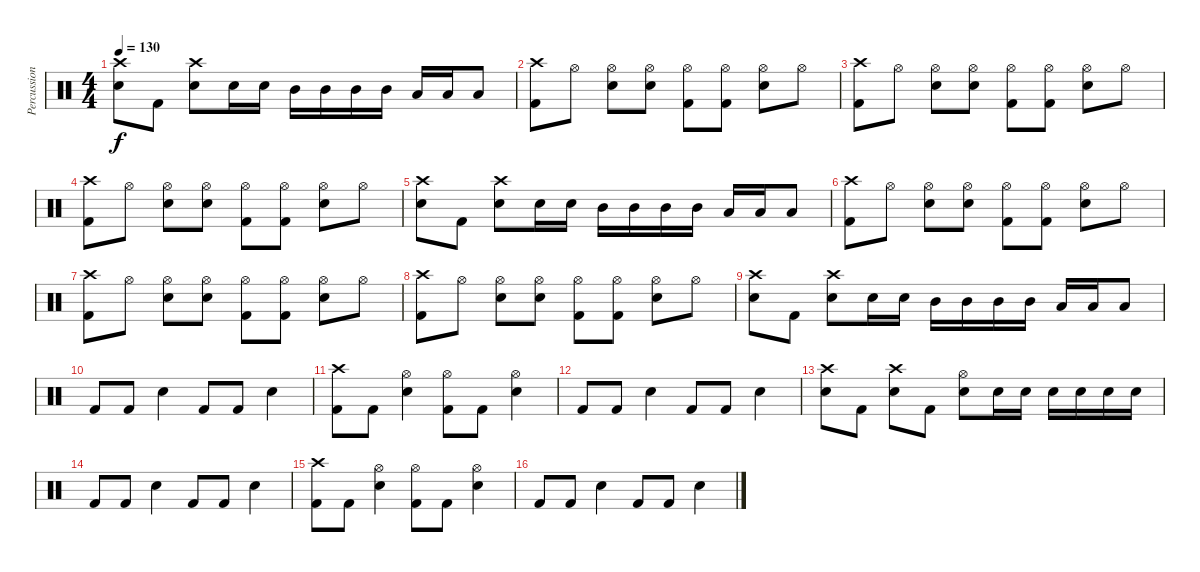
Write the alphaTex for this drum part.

\track ("Percussion" "Percussion") {instrument percussion}
\staff {score}
\articulation defaults
\ts (4 4)
\tempo 130
\clef neutral
\ks c
("Crash high (hit)" "Snare (hit) 2").8{dy f} "Kick (hit) 2".8 ("Crash high (hit)" "Snare (hit) 2").8 "Snare (hit) 2".16 "Snare (hit) 2".16 "Mid Tom (hit)".16 "Mid Tom (hit)".16 "Mid Tom (hit)".16 "Mid Tom (hit)".16 "Low Tom (hit)".16 "Low Tom (hit)".16 "Low Tom (hit)".8 |
("Crash high (hit)" "Kick (hit) 2").8 "Hi-Hat (open)".8 ("Hi-Hat (open)" "Snare (hit) 2").8 ("Hi-Hat (open)" "Snare (hit) 2").8 ("Hi-Hat (open)" "Kick (hit) 2").8 ("Hi-Hat (open)" "Kick (hit) 2").8 ("Hi-Hat (open)" "Snare (hit) 2").8 "Hi-Hat (open)".8 |
("Crash high (hit)" "Kick (hit) 2").8 "Hi-Hat (open)".8 ("Hi-Hat (open)" "Snare (hit) 2").8 ("Hi-Hat (open)" "Snare (hit) 2").8 ("Hi-Hat (open)" "Kick (hit) 2").8 ("Hi-Hat (open)" "Kick (hit) 2").8 ("Hi-Hat (open)" "Snare (hit) 2").8 "Hi-Hat (open)".8 |
("Crash high (hit)" "Kick (hit) 2").8 "Hi-Hat (open)".8 ("Hi-Hat (open)" "Snare (hit) 2").8 ("Hi-Hat (open)" "Snare (hit) 2").8 ("Hi-Hat (open)" "Kick (hit) 2").8 ("Hi-Hat (open)" "Kick (hit) 2").8 ("Hi-Hat (open)" "Snare (hit) 2").8 "Hi-Hat (open)".8 |
("Crash high (hit)" "Snare (hit) 2").8 "Kick (hit) 2".8 ("Crash high (hit)" "Snare (hit) 2").8 "Snare (hit) 2".16 "Snare (hit) 2".16 "Mid Tom (hit)".16 "Mid Tom (hit)".16 "Mid Tom (hit)".16 "Mid Tom (hit)".16 "Low Tom (hit)".16 "Low Tom (hit)".16 "Low Tom (hit)".8 |
("Crash high (hit)" "Kick (hit) 2").8 "Hi-Hat (open)".8 ("Hi-Hat (open)" "Snare (hit) 2").8 ("Hi-Hat (open)" "Snare (hit) 2").8 ("Hi-Hat (open)" "Kick (hit) 2").8 ("Hi-Hat (open)" "Kick (hit) 2").8 ("Hi-Hat (open)" "Snare (hit) 2").8 "Hi-Hat (open)".8 |
("Crash high (hit)" "Kick (hit) 2").8 "Hi-Hat (open)".8 ("Hi-Hat (open)" "Snare (hit) 2").8 ("Hi-Hat (open)" "Snare (hit) 2").8 ("Hi-Hat (open)" "Kick (hit) 2").8 ("Hi-Hat (open)" "Kick (hit) 2").8 ("Hi-Hat (open)" "Snare (hit) 2").8 "Hi-Hat (open)".8 |
("Crash high (hit)" "Kick (hit) 2").8 "Hi-Hat (open)".8 ("Hi-Hat (open)" "Snare (hit) 2").8 ("Hi-Hat (open)" "Snare (hit) 2").8 ("Hi-Hat (open)" "Kick (hit) 2").8 ("Hi-Hat (open)" "Kick (hit) 2").8 ("Hi-Hat (open)" "Snare (hit) 2").8 "Hi-Hat (open)".8 |
("Crash high (hit)" "Snare (hit) 2").8 "Kick (hit) 2".8 ("Crash high (hit)" "Snare (hit) 2").8 "Snare (hit) 2".16 "Snare (hit) 2".16 "Mid Tom (hit)".16 "Mid Tom (hit)".16 "Mid Tom (hit)".16 "Mid Tom (hit)".16 "Low Tom (hit)".16 "Low Tom (hit)".16 "Low Tom (hit)".8 |
"Kick (hit) 2".8 "Kick (hit) 2".8 "Snare (hit) 2".4 "Kick (hit) 2".8 "Kick (hit) 2".8 "Snare (hit) 2".4 |
("Crash high (hit)" "Kick (hit) 2").8 "Kick (hit) 2".8 ("Hi-Hat (open)" "Snare (hit) 2").4 ("Hi-Hat (open)" "Kick (hit) 2").8 "Kick (hit) 2".8 ("Hi-Hat (open)" "Snare (hit) 2").4 |
"Kick (hit) 2".8 "Kick (hit) 2".8 "Snare (hit) 2".4 "Kick (hit) 2".8 "Kick (hit) 2".8 "Snare (hit) 2".4 |
("Crash high (hit)" "Snare (hit) 2").8 "Kick (hit) 2".8 ("Crash high (hit)" "Snare (hit) 2").8 "Kick (hit) 2".8 ("Hi-Hat (open)" "Snare (hit) 2").8 "Snare (hit) 2".16 "Snare (hit) 2".16 "Snare (hit) 2".16 "Snare (hit) 2".16 "Snare (hit) 2".16 "Snare (hit) 2".16 |
"Kick (hit) 2".8 "Kick (hit) 2".8 "Snare (hit) 2".4 "Kick (hit) 2".8 "Kick (hit) 2".8 "Snare (hit) 2".4 |
("Crash high (hit)" "Kick (hit) 2").8 "Kick (hit) 2".8 ("Hi-Hat (open)" "Snare (hit) 2").4 ("Hi-Hat (open)" "Kick (hit) 2").8 "Kick (hit) 2".8 ("Hi-Hat (open)" "Snare (hit) 2").4 |
"Kick (hit) 2".8 "Kick (hit) 2".8 "Snare (hit) 2".4 "Kick (hit) 2".8 "Kick (hit) 2".8 "Snare (hit) 2".4
